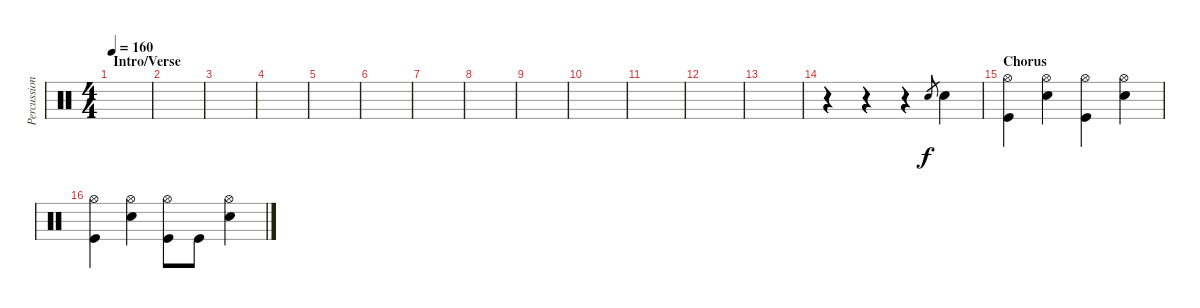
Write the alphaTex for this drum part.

\track ("Percussion" "Percussion") {instrument percussion}
\staff {score}
\articulation defaults
\ts (4 4)
\section ("" "Intro/Verse")
\tempo 160
\clef neutral
\ks c
|
|
|
|
|
|
|
|
|
|
|
|
|
r.4 r.4 r.4 "Electric Snare (hit)".8{gr} "Electric Snare (hit)".4 |
\section ("" "Chorus")
("Hi-Hat (open)" "Kick (hit)").4 ("Hi-Hat (open)" "Electric Snare (hit)").4 ("Hi-Hat (open)" "Kick (hit)").4 ("Hi-Hat (open)" "Electric Snare (hit)").4 |
("Hi-Hat (open)" "Kick (hit)").4 ("Hi-Hat (open)" "Electric Snare (hit)").4 ("Hi-Hat (open)" "Kick (hit)").8 "Kick (hit)".8 ("Hi-Hat (open)" "Electric Snare (hit)").4
